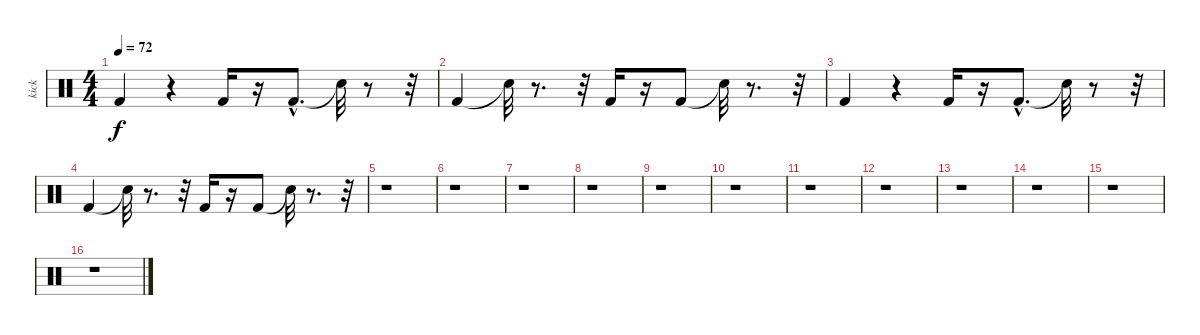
\track ("kick" "kick") {instrument percussion}
\staff {score}
\articulation defaults
\ts (4 4)
\tempo 72
\clef neutral
\ks c "Kick (hit) 2".4{dy f}
r.4 "Kick (hit) 2".16 r.16 "Kick (hit) 2"{hac}.8{d} "Snare (hit)"{t}.32 r.8 r.32 |
"Kick (hit) 2".4 "Snare (hit)"{t}.32 r.8{d} r.32 "Kick (hit) 2".16 r.16 "Kick (hit) 2".8 "Snare (hit)"{t}.32 r.8{d} r.32 |
"Kick (hit) 2".4 r.4 "Kick (hit) 2".16 r.16 "Kick (hit) 2"{hac}.8{d} "Snare (hit)"{t}.32 r.8 r.32 |
"Kick (hit) 2".4 "Snare (hit)"{t}.32 r.8{d} r.32 "Kick (hit) 2".16 r.16 "Kick (hit) 2".8 "Snare (hit)"{t}.32 r.8{d} r.32 |
r.1 |
r.1 |
r.1 |
r.1 |
r.1 |
r.1 |
r.1 |
r.1 |
r.1 |
r.1 |
r.1 |
r.1
